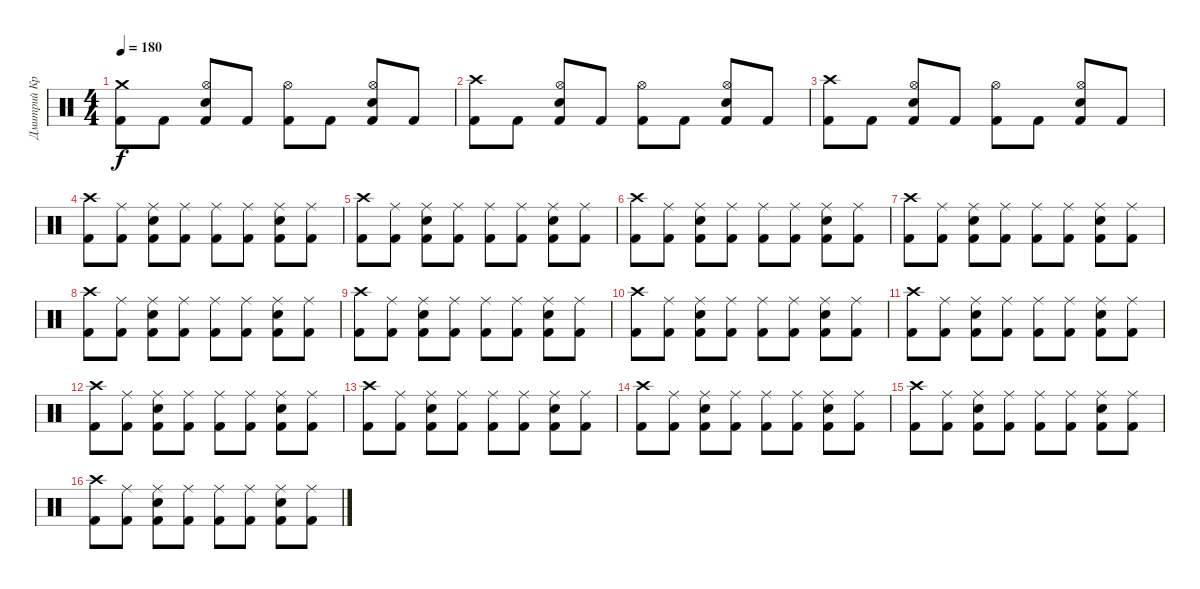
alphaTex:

\track ("Дмитрий Кривенков" "Дмитрий Кр") {instrument percussion}
\staff {score}
\articulation defaults
\ts (4 4)
\tempo 180
\clef neutral
\ks c
("Kick (hit) 2" "Crash medium (hit)").8{dy f} "Kick (hit) 2".8 ("Hi-Hat (open)" "Electric Snare (hit)" "Kick (hit) 2").8 "Kick (hit) 2".8 ("Hi-Hat (open)" "Kick (hit) 2").8 "Kick (hit) 2".8 ("Kick (hit) 2" "Electric Snare (hit)" "Hi-Hat (open)").8 "Kick (hit) 2".8 |
("Kick (hit) 2" "Crash high (hit)").8 "Kick (hit) 2".8 ("Hi-Hat (open)" "Electric Snare (hit)" "Kick (hit) 2").8 "Kick (hit) 2".8 ("Hi-Hat (open)" "Kick (hit) 2").8 "Kick (hit) 2".8 ("Kick (hit) 2" "Electric Snare (hit)" "Hi-Hat (open)").8 "Kick (hit) 2".8 |
("Kick (hit) 2" "Crash high (hit)").8 "Kick (hit) 2".8 ("Hi-Hat (open)" "Electric Snare (hit)" "Kick (hit) 2").8 "Kick (hit) 2".8 ("Hi-Hat (open)" "Kick (hit) 2").8 "Kick (hit) 2".8 ("Kick (hit) 2" "Electric Snare (hit)" "Hi-Hat (open)").8 "Kick (hit) 2".8 |
("Crash high (hit)" "Kick (hit) 2").8 ("Ride (middle)" "Kick (hit) 2").8 ("Kick (hit) 2" "Electric Snare (hit)" "Ride (middle)").8 ("Ride (middle)" "Kick (hit) 2").8 ("Ride (middle)" "Kick (hit) 2").8 ("Kick (hit) 2" "Ride (middle)").8 ("Kick (hit) 2" "Electric Snare (hit)" "Ride (middle)").8 ("Ride (middle)" "Kick (hit) 2").8 |
("Crash high (hit)" "Kick (hit) 2").8 ("Ride (middle)" "Kick (hit) 2").8 ("Kick (hit) 2" "Electric Snare (hit)" "Ride (middle)").8 ("Ride (middle)" "Kick (hit) 2").8 ("Ride (middle)" "Kick (hit) 2").8 ("Kick (hit) 2" "Ride (middle)").8 ("Kick (hit) 2" "Electric Snare (hit)" "Ride (middle)").8 ("Ride (middle)" "Kick (hit) 2").8 |
("Crash high (hit)" "Kick (hit) 2").8 ("Ride (middle)" "Kick (hit) 2").8 ("Kick (hit) 2" "Electric Snare (hit)" "Ride (middle)").8 ("Ride (middle)" "Kick (hit) 2").8 ("Ride (middle)" "Kick (hit) 2").8 ("Kick (hit) 2" "Ride (middle)").8 ("Kick (hit) 2" "Electric Snare (hit)" "Ride (middle)").8 ("Ride (middle)" "Kick (hit) 2").8 |
("Crash high (hit)" "Kick (hit) 2").8 ("Ride (middle)" "Kick (hit) 2").8 ("Kick (hit) 2" "Electric Snare (hit)" "Ride (middle)").8 ("Ride (middle)" "Kick (hit) 2").8 ("Ride (middle)" "Kick (hit) 2").8 ("Kick (hit) 2" "Ride (middle)").8 ("Kick (hit) 2" "Electric Snare (hit)" "Ride (middle)").8 ("Ride (middle)" "Kick (hit) 2").8 |
("Crash high (hit)" "Kick (hit) 2").8 ("Ride (middle)" "Kick (hit) 2").8 ("Kick (hit) 2" "Electric Snare (hit)" "Ride (middle)").8 ("Ride (middle)" "Kick (hit) 2").8 ("Ride (middle)" "Kick (hit) 2").8 ("Kick (hit) 2" "Ride (middle)").8 ("Kick (hit) 2" "Electric Snare (hit)" "Ride (middle)").8 ("Ride (middle)" "Kick (hit) 2").8 |
("Crash high (hit)" "Kick (hit) 2").8 ("Ride (middle)" "Kick (hit) 2").8 ("Kick (hit) 2" "Electric Snare (hit)" "Ride (middle)").8 ("Ride (middle)" "Kick (hit) 2").8 ("Ride (middle)" "Kick (hit) 2").8 ("Kick (hit) 2" "Ride (middle)").8 ("Kick (hit) 2" "Electric Snare (hit)" "Ride (middle)").8 ("Ride (middle)" "Kick (hit) 2").8 |
("Crash high (hit)" "Kick (hit) 2").8 ("Ride (middle)" "Kick (hit) 2").8 ("Kick (hit) 2" "Electric Snare (hit)" "Ride (middle)").8 ("Ride (middle)" "Kick (hit) 2").8 ("Ride (middle)" "Kick (hit) 2").8 ("Kick (hit) 2" "Ride (middle)").8 ("Kick (hit) 2" "Electric Snare (hit)" "Ride (middle)").8 ("Ride (middle)" "Kick (hit) 2").8 |
("Crash high (hit)" "Kick (hit) 2").8 ("Ride (middle)" "Kick (hit) 2").8 ("Kick (hit) 2" "Electric Snare (hit)" "Ride (middle)").8 ("Ride (middle)" "Kick (hit) 2").8 ("Ride (middle)" "Kick (hit) 2").8 ("Kick (hit) 2" "Ride (middle)").8 ("Kick (hit) 2" "Electric Snare (hit)" "Ride (middle)").8 ("Ride (middle)" "Kick (hit) 2").8 |
("Crash high (hit)" "Kick (hit) 2").8 ("Ride (middle)" "Kick (hit) 2").8 ("Kick (hit) 2" "Electric Snare (hit)" "Ride (middle)").8 ("Ride (middle)" "Kick (hit) 2").8 ("Ride (middle)" "Kick (hit) 2").8 ("Kick (hit) 2" "Ride (middle)").8 ("Kick (hit) 2" "Electric Snare (hit)" "Ride (middle)").8 ("Ride (middle)" "Kick (hit) 2").8 |
("Crash high (hit)" "Kick (hit) 2").8 ("Ride (middle)" "Kick (hit) 2").8 ("Kick (hit) 2" "Electric Snare (hit)" "Ride (middle)").8 ("Ride (middle)" "Kick (hit) 2").8 ("Ride (middle)" "Kick (hit) 2").8 ("Kick (hit) 2" "Ride (middle)").8 ("Kick (hit) 2" "Electric Snare (hit)" "Ride (middle)").8 ("Ride (middle)" "Kick (hit) 2").8 |
("Crash high (hit)" "Kick (hit) 2").8 ("Ride (middle)" "Kick (hit) 2").8 ("Kick (hit) 2" "Electric Snare (hit)" "Ride (middle)").8 ("Ride (middle)" "Kick (hit) 2").8 ("Ride (middle)" "Kick (hit) 2").8 ("Kick (hit) 2" "Ride (middle)").8 ("Kick (hit) 2" "Electric Snare (hit)" "Ride (middle)").8 ("Ride (middle)" "Kick (hit) 2").8 |
("Crash high (hit)" "Kick (hit) 2").8 ("Ride (middle)" "Kick (hit) 2").8 ("Kick (hit) 2" "Electric Snare (hit)" "Ride (middle)").8 ("Ride (middle)" "Kick (hit) 2").8 ("Ride (middle)" "Kick (hit) 2").8 ("Kick (hit) 2" "Ride (middle)").8 ("Kick (hit) 2" "Electric Snare (hit)" "Ride (middle)").8 ("Ride (middle)" "Kick (hit) 2").8 |
("Crash high (hit)" "Kick (hit) 2").8 ("Ride (middle)" "Kick (hit) 2").8 ("Kick (hit) 2" "Electric Snare (hit)" "Ride (middle)").8 ("Ride (middle)" "Kick (hit) 2").8 ("Ride (middle)" "Kick (hit) 2").8 ("Kick (hit) 2" "Ride (middle)").8 ("Kick (hit) 2" "Electric Snare (hit)" "Ride (middle)").8 ("Ride (middle)" "Kick (hit) 2").8
